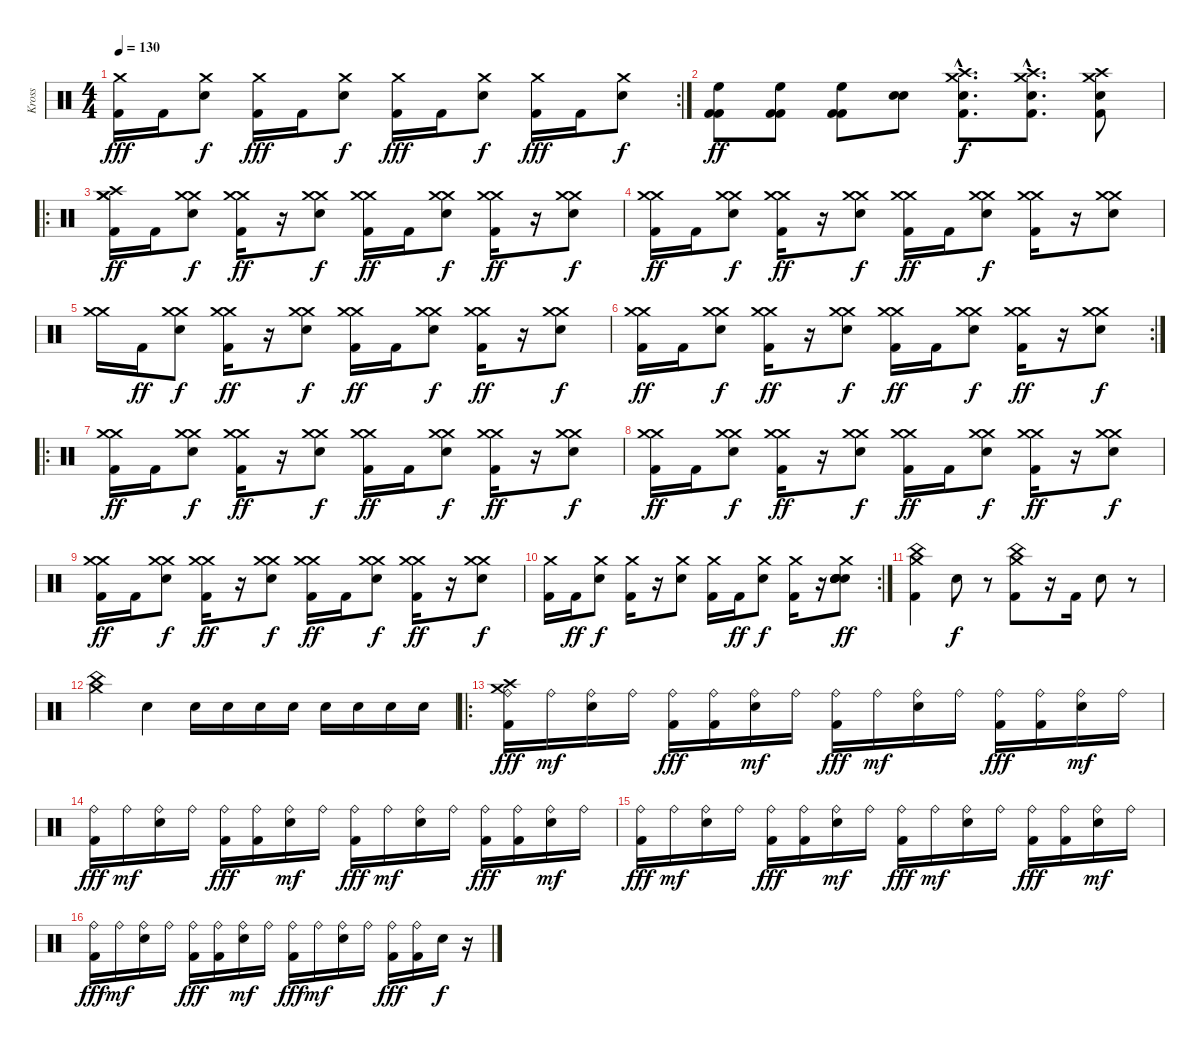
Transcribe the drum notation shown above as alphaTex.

\track ("Kross" "Kross") {instrument percussion}
\staff {score}
\articulation defaults
\rc 2
\ts (4 4)
\tempo 130
\clef neutral
\ks c
("Kick (hit) 2" "Crash medium (hit)").16{dy fff} "Kick (hit) 2".16 ("Crash medium (hit)" "Electric Snare (hit)").8{dy f} ("Kick (hit) 2" "Crash medium (hit)").16{dy fff} "Kick (hit) 2".16 ("Crash medium (hit)" "Electric Snare (hit)").8{dy f} ("Kick (hit) 2" "Crash medium (hit)").16{dy fff} "Kick (hit) 2".16 ("Crash medium (hit)" "Electric Snare (hit)").8{dy f} ("Kick (hit) 2" "Crash medium (hit)").16{dy fff} "Kick (hit) 2".16 ("Crash medium (hit)" "Electric Snare (hit)").8{dy f} |
("High Floor Tom (hit)" "Kick (hit) 2" "Kick (hit) 2").8{dy ff} ("High Floor Tom (hit)" "Kick (hit) 2" "Kick (hit) 2").8 ("High Floor Tom (hit)" "Kick (hit) 2" "Kick (hit) 2").8 ("Electric Snare (hit)" "Electric Snare (hit)").8 ("Kick (hit) 2"{hac} "Crash high (hit)"{hac} "Crash medium (hit)"{hac} "Electric Snare (hit)"{hac}).8{d dy f} ("Kick (hit) 2"{hac} "Crash high (hit)"{hac} "Crash medium (hit)"{hac} "Electric Snare (hit)"{hac}).8{d} ("Kick (hit) 2" "Crash high (hit)" "Crash medium (hit)" "Electric Snare (hit)").8 |
\ro
("Crash high (hit)" "Kick (hit) 2" "Crash medium (hit)" "Crash medium (hit)").16{dy ff} "Kick (hit) 2".16 ("Crash medium (hit)" "Crash medium (hit)" "Electric Snare (hit)").8{dy f} ("Kick (hit) 2" "Crash medium (hit)" "Crash medium (hit)").16{dy ff} r.16 ("Crash medium (hit)" "Crash medium (hit)" "Electric Snare (hit)").8{dy f} ("Kick (hit) 2" "Crash medium (hit)" "Crash medium (hit)").16{dy ff} "Kick (hit) 2".16 ("Crash medium (hit)" "Crash medium (hit)" "Electric Snare (hit)").8{dy f} ("Kick (hit) 2" "Crash medium (hit)" "Crash medium (hit)").16{dy ff} r.16 ("Crash medium (hit)" "Crash medium (hit)" "Electric Snare (hit)").8{dy f} |
("Kick (hit) 2" "Crash medium (hit)" "Crash medium (hit)").16{dy ff} "Kick (hit) 2".16 ("Crash medium (hit)" "Crash medium (hit)" "Electric Snare (hit)").8{dy f} ("Kick (hit) 2" "Crash medium (hit)" "Crash medium (hit)").16{dy ff} r.16 ("Crash medium (hit)" "Crash medium (hit)" "Electric Snare (hit)").8{dy f} ("Kick (hit) 2" "Crash medium (hit)" "Crash medium (hit)").16{dy ff} "Kick (hit) 2".16 ("Crash medium (hit)" "Crash medium (hit)" "Electric Snare (hit)").8{dy f} ("Kick (hit) 2" "Crash medium (hit)" "Crash medium (hit)").16 r.16 ("Crash medium (hit)" "Crash medium (hit)" "Electric Snare (hit)").8 |
("Crash medium (hit)" "Crash medium (hit)").16 "Kick (hit) 2".16{dy ff} ("Crash medium (hit)" "Crash medium (hit)" "Electric Snare (hit)").8{dy f} ("Kick (hit) 2" "Crash medium (hit)" "Crash medium (hit)").16{dy ff} r.16 ("Crash medium (hit)" "Crash medium (hit)" "Electric Snare (hit)").8{dy f} ("Kick (hit) 2" "Crash medium (hit)" "Crash medium (hit)").16{dy ff} "Kick (hit) 2".16 ("Crash medium (hit)" "Crash medium (hit)" "Electric Snare (hit)").8{dy f} ("Kick (hit) 2" "Crash medium (hit)" "Crash medium (hit)").16{dy ff} r.16 ("Crash medium (hit)" "Crash medium (hit)" "Electric Snare (hit)").8{dy f} |
\rc 2
("Kick (hit) 2" "Crash medium (hit)" "Crash medium (hit)").16{dy ff} "Kick (hit) 2".16 ("Crash medium (hit)" "Crash medium (hit)" "Electric Snare (hit)").8{dy f} ("Kick (hit) 2" "Crash medium (hit)" "Crash medium (hit)").16{dy ff} r.16 ("Crash medium (hit)" "Crash medium (hit)" "Electric Snare (hit)").8{dy f} ("Kick (hit) 2" "Crash medium (hit)" "Crash medium (hit)").16{dy ff} "Kick (hit) 2".16 ("Crash medium (hit)" "Crash medium (hit)" "Electric Snare (hit)").8{dy f} ("Kick (hit) 2" "Crash medium (hit)" "Crash medium (hit)").16{dy ff} r.16 ("Crash medium (hit)" "Crash medium (hit)" "Electric Snare (hit)").8{dy f} |
\ro
("Kick (hit) 2" "Crash medium (hit)" "Crash medium (hit)").16{dy ff} "Kick (hit) 2".16 ("Crash medium (hit)" "Crash medium (hit)" "Electric Snare (hit)").8{dy f} ("Kick (hit) 2" "Crash medium (hit)" "Crash medium (hit)").16{dy ff} r.16 ("Crash medium (hit)" "Crash medium (hit)" "Electric Snare (hit)").8{dy f} ("Kick (hit) 2" "Crash medium (hit)" "Crash medium (hit)").16{dy ff} "Kick (hit) 2".16 ("Crash medium (hit)" "Crash medium (hit)" "Electric Snare (hit)").8{dy f} ("Kick (hit) 2" "Crash medium (hit)" "Crash medium (hit)").16{dy ff} r.16 ("Crash medium (hit)" "Crash medium (hit)" "Electric Snare (hit)").8{dy f} |
("Kick (hit) 2" "Crash medium (hit)" "Crash medium (hit)").16{dy ff} "Kick (hit) 2".16 ("Crash medium (hit)" "Crash medium (hit)" "Electric Snare (hit)").8{dy f} ("Kick (hit) 2" "Crash medium (hit)" "Crash medium (hit)").16{dy ff} r.16 ("Crash medium (hit)" "Crash medium (hit)" "Electric Snare (hit)").8{dy f} ("Kick (hit) 2" "Crash medium (hit)" "Crash medium (hit)").16{dy ff} "Kick (hit) 2".16 ("Crash medium (hit)" "Crash medium (hit)" "Electric Snare (hit)").8{dy f} ("Kick (hit) 2" "Crash medium (hit)" "Crash medium (hit)").16{dy ff} r.16 ("Crash medium (hit)" "Crash medium (hit)" "Electric Snare (hit)").8{dy f} |
("Kick (hit) 2" "Crash medium (hit)" "Crash medium (hit)").16{dy ff} "Kick (hit) 2".16 ("Crash medium (hit)" "Crash medium (hit)" "Electric Snare (hit)").8{dy f} ("Kick (hit) 2" "Crash medium (hit)" "Crash medium (hit)").16{dy ff} r.16 ("Crash medium (hit)" "Crash medium (hit)" "Electric Snare (hit)").8{dy f} ("Kick (hit) 2" "Crash medium (hit)" "Crash medium (hit)").16{dy ff} "Kick (hit) 2".16 ("Crash medium (hit)" "Crash medium (hit)" "Electric Snare (hit)").8{dy f} ("Kick (hit) 2" "Crash medium (hit)" "Crash medium (hit)").16{dy ff} r.16 ("Crash medium (hit)" "Crash medium (hit)" "Electric Snare (hit)").8{dy f} |
\rc 2
("Kick (hit) 2" "Crash medium (hit)").16 "Kick (hit) 2".16{dy ff} ("Crash medium (hit)" "Electric Snare (hit)").8{dy f} ("Kick (hit) 2" "Crash medium (hit)").16 r.16 ("Crash medium (hit)" "Electric Snare (hit)").8 ("Kick (hit) 2" "Crash medium (hit)").16 "Kick (hit) 2".16{dy ff} ("Crash medium (hit)" "Electric Snare (hit)").8{dy f} ("Kick (hit) 2" "Crash medium (hit)").16 r.16 ("Electric Snare (hit)" "Electric Snare (hit)" "Electric Snare (hit)" "Electric Snare (hit)" "Crash medium (hit)" "Electric Snare (hit)").8{dy ff} |
("Kick (hit) 2" "China (hit)" "Crash medium (hit)").4 "Electric Snare (hit)".8{dy f} r.8 ("Crash medium (hit)" "China (hit)" "Kick (hit) 2").8 r.16 "Kick (hit) 2".16 "Electric Snare (hit)".8 r.8 |
("China (hit)" "Crash medium (hit)").4 "Electric Snare (hit)".4 "Electric Snare (hit)".16 "Electric Snare (hit)".16 "Electric Snare (hit)".16 "Electric Snare (hit)".16 "Electric Snare (hit)".16 "Electric Snare (hit)".16 "Electric Snare (hit)".16 "Electric Snare (hit)".16 |
\ro
("Crash high (hit)" "Crash medium (hit)" "Ride (bell)" "Kick (hit) 2").16{dy fff} "Ride (bell)".16{dy mf} ("Ride (bell)" "Electric Snare (hit)").16 "Ride (bell)".16 ("Ride (bell)" "Kick (hit) 2").16{dy fff} ("Ride (bell)" "Kick (hit) 2").16 ("Ride (bell)" "Electric Snare (hit)").16{dy mf} "Ride (bell)".16 ("Ride (bell)" "Kick (hit) 2").16{dy fff} "Ride (bell)".16{dy mf} ("Ride (bell)" "Electric Snare (hit)").16 "Ride (bell)".16 ("Ride (bell)" "Kick (hit) 2").16{dy fff} ("Ride (bell)" "Kick (hit) 2").16 ("Ride (bell)" "Electric Snare (hit)").16{dy mf} "Ride (bell)".16 |
("Ride (bell)" "Kick (hit) 2").16{dy fff} "Ride (bell)".16{dy mf} ("Ride (bell)" "Electric Snare (hit)").16 "Ride (bell)".16 ("Ride (bell)" "Kick (hit) 2").16{dy fff} ("Ride (bell)" "Kick (hit) 2").16 ("Ride (bell)" "Electric Snare (hit)").16{dy mf} "Ride (bell)".16 ("Ride (bell)" "Kick (hit) 2").16{dy fff} "Ride (bell)".16{dy mf} ("Ride (bell)" "Electric Snare (hit)").16 "Ride (bell)".16 ("Ride (bell)" "Kick (hit) 2").16{dy fff} ("Ride (bell)" "Kick (hit) 2").16 ("Ride (bell)" "Electric Snare (hit)").16{dy mf} "Ride (bell)".16 |
("Ride (bell)" "Kick (hit) 2").16{dy fff} "Ride (bell)".16{dy mf} ("Ride (bell)" "Electric Snare (hit)").16 "Ride (bell)".16 ("Ride (bell)" "Kick (hit) 2").16{dy fff} ("Ride (bell)" "Kick (hit) 2").16 ("Ride (bell)" "Electric Snare (hit)").16{dy mf} "Ride (bell)".16 ("Ride (bell)" "Kick (hit) 2").16{dy fff} "Ride (bell)".16{dy mf} ("Ride (bell)" "Electric Snare (hit)").16 "Ride (bell)".16 ("Ride (bell)" "Kick (hit) 2").16{dy fff} ("Ride (bell)" "Kick (hit) 2").16 ("Ride (bell)" "Electric Snare (hit)").16{dy mf} "Ride (bell)".16 |
("Ride (bell)" "Kick (hit) 2").16{dy fff} "Ride (bell)".16{dy mf} ("Ride (bell)" "Electric Snare (hit)").16 "Ride (bell)".16 ("Ride (bell)" "Kick (hit) 2").16{dy fff} ("Ride (bell)" "Kick (hit) 2").16 ("Ride (bell)" "Electric Snare (hit)").16{dy mf} "Ride (bell)".16 ("Ride (bell)" "Kick (hit) 2").16{dy fff} "Ride (bell)".16{dy mf} ("Ride (bell)" "Electric Snare (hit)").16 "Ride (bell)".16 ("Ride (bell)" "Kick (hit) 2").16{dy fff} ("Ride (bell)" "Kick (hit) 2").16 "Electric Snare (hit)".16{dy f} r.16
